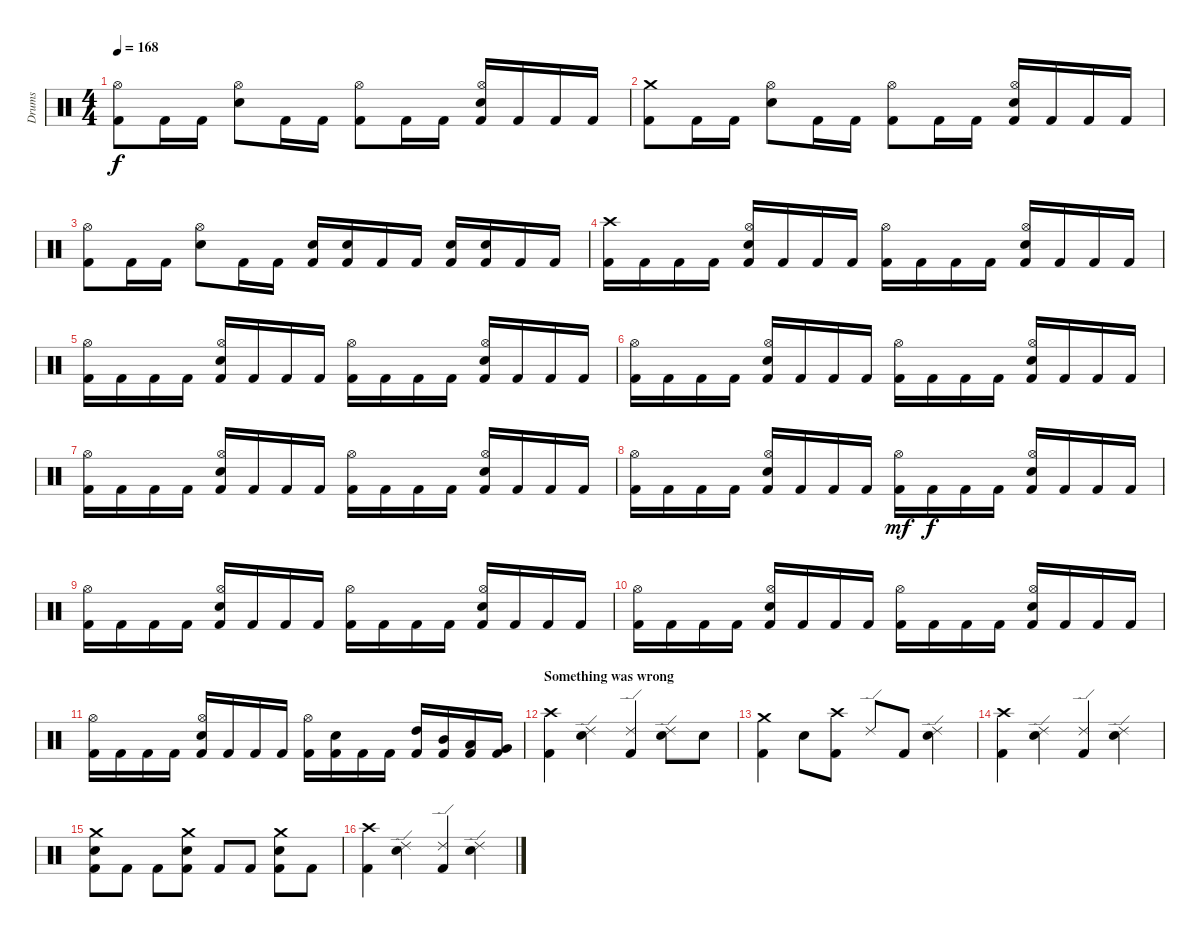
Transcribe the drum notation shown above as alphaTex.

\track ("Drums" "Drums") {instrument percussion}
\staff {score}
\articulation defaults
\ts (4 4)
\tempo 168
\clef neutral
\ks c
("Kick (hit) 2" "Hi-Hat (open)").8{dy f} "Kick (hit) 2".16 "Kick (hit) 2".16 ("Electric Snare (hit)" "Hi-Hat (open)").8 "Kick (hit) 2".16 "Kick (hit) 2".16 ("Kick (hit) 2" "Hi-Hat (open)").8 "Kick (hit) 2".16 "Kick (hit) 2".16 ("Kick (hit) 2" "Electric Snare (hit)" "Hi-Hat (open)").16 "Kick (hit) 2".16 "Kick (hit) 2".16 "Kick (hit) 2".16 |
("Kick (hit) 2" "Crash medium (hit)").8 "Kick (hit) 2".16 "Kick (hit) 2".16 ("Electric Snare (hit)" "Hi-Hat (open)").8 "Kick (hit) 2".16 "Kick (hit) 2".16 ("Kick (hit) 2" "Hi-Hat (open)").8 "Kick (hit) 2".16 "Kick (hit) 2".16 ("Kick (hit) 2" "Electric Snare (hit)" "Hi-Hat (open)").16 "Kick (hit) 2".16 "Kick (hit) 2".16 "Kick (hit) 2".16 |
("Kick (hit) 2" "Hi-Hat (open)").8 "Kick (hit) 2".16 "Kick (hit) 2".16 ("Electric Snare (hit)" "Hi-Hat (open)").8 "Kick (hit) 2".16 "Kick (hit) 2".16 ("Kick (hit) 2" "Electric Snare (hit)").16 ("Kick (hit) 2" "Electric Snare (hit)").16 "Kick (hit) 2".16 "Kick (hit) 2".16 ("Kick (hit) 2" "Electric Snare (hit)").16 ("Kick (hit) 2" "Electric Snare (hit)").16 "Kick (hit) 2".16 "Kick (hit) 2".16 |
\section ("" "")
("Kick (hit) 2" "Crash high (hit)").16 "Kick (hit) 2".16 "Kick (hit) 2".16 "Kick (hit) 2".16 ("Kick (hit) 2" "Electric Snare (hit)" "Hi-Hat (open)").16 "Kick (hit) 2".16 "Kick (hit) 2".16 "Kick (hit) 2".16 ("Kick (hit) 2" "Hi-Hat (open)").16 "Kick (hit) 2".16 "Kick (hit) 2".16 "Kick (hit) 2".16 ("Kick (hit) 2" "Electric Snare (hit)" "Hi-Hat (open)").16 "Kick (hit) 2".16 "Kick (hit) 2".16 "Kick (hit) 2".16 |
("Kick (hit) 2" "Hi-Hat (open)").16 "Kick (hit) 2".16 "Kick (hit) 2".16 "Kick (hit) 2".16 ("Kick (hit) 2" "Electric Snare (hit)" "Hi-Hat (open)").16 "Kick (hit) 2".16 "Kick (hit) 2".16 "Kick (hit) 2".16 ("Kick (hit) 2" "Hi-Hat (open)").16 "Kick (hit) 2".16 "Kick (hit) 2".16 "Kick (hit) 2".16 ("Kick (hit) 2" "Electric Snare (hit)" "Hi-Hat (open)").16 "Kick (hit) 2".16 "Kick (hit) 2".16 "Kick (hit) 2".16 |
("Kick (hit) 2" "Hi-Hat (open)").16 "Kick (hit) 2".16 "Kick (hit) 2".16 "Kick (hit) 2".16 ("Kick (hit) 2" "Electric Snare (hit)" "Hi-Hat (open)").16 "Kick (hit) 2".16 "Kick (hit) 2".16 "Kick (hit) 2".16 ("Kick (hit) 2" "Hi-Hat (open)").16 "Kick (hit) 2".16 "Kick (hit) 2".16 "Kick (hit) 2".16 ("Kick (hit) 2" "Electric Snare (hit)" "Hi-Hat (open)").16 "Kick (hit) 2".16 "Kick (hit) 2".16 "Kick (hit) 2".16 |
("Kick (hit) 2" "Hi-Hat (open)").16 "Kick (hit) 2".16 "Kick (hit) 2".16 "Kick (hit) 2".16 ("Kick (hit) 2" "Electric Snare (hit)" "Hi-Hat (open)").16 "Kick (hit) 2".16 "Kick (hit) 2".16 "Kick (hit) 2".16 ("Kick (hit) 2" "Hi-Hat (open)").16 "Kick (hit) 2".16 "Kick (hit) 2".16 "Kick (hit) 2".16 ("Kick (hit) 2" "Electric Snare (hit)" "Hi-Hat (open)").16 "Kick (hit) 2".16 "Kick (hit) 2".16 "Kick (hit) 2".16 |
("Kick (hit) 2" "Hi-Hat (open)").16 "Kick (hit) 2".16 "Kick (hit) 2".16 "Kick (hit) 2".16 ("Kick (hit) 2" "Electric Snare (hit)" "Hi-Hat (open)").16 "Kick (hit) 2".16 "Kick (hit) 2".16 "Kick (hit) 2".16 ("Kick (hit) 2" "Hi-Hat (open)").16{dy mf} "Kick (hit) 2".16{dy f} "Kick (hit) 2".16 "Kick (hit) 2".16 ("Kick (hit) 2" "Electric Snare (hit)" "Hi-Hat (open)").16 "Kick (hit) 2".16 "Kick (hit) 2".16 "Kick (hit) 2".16 |
("Kick (hit) 2" "Hi-Hat (open)").16 "Kick (hit) 2".16 "Kick (hit) 2".16 "Kick (hit) 2".16 ("Kick (hit) 2" "Electric Snare (hit)" "Hi-Hat (open)").16 "Kick (hit) 2".16 "Kick (hit) 2".16 "Kick (hit) 2".16 ("Kick (hit) 2" "Hi-Hat (open)").16 "Kick (hit) 2".16 "Kick (hit) 2".16 "Kick (hit) 2".16 ("Kick (hit) 2" "Electric Snare (hit)" "Hi-Hat (open)").16 "Kick (hit) 2".16 "Kick (hit) 2".16 "Kick (hit) 2".16 |
("Kick (hit) 2" "Hi-Hat (open)").16 "Kick (hit) 2".16 "Kick (hit) 2".16 "Kick (hit) 2".16 ("Kick (hit) 2" "Electric Snare (hit)" "Hi-Hat (open)").16 "Kick (hit) 2".16 "Kick (hit) 2".16 "Kick (hit) 2".16 ("Kick (hit) 2" "Hi-Hat (open)").16 "Kick (hit) 2".16 "Kick (hit) 2".16 "Kick (hit) 2".16 ("Kick (hit) 2" "Electric Snare (hit)" "Hi-Hat (open)").16 "Kick (hit) 2".16 "Kick (hit) 2".16 "Kick (hit) 2".16 |
("Kick (hit) 2" "Hi-Hat (open)").16 "Kick (hit) 2".16 "Kick (hit) 2".16 "Kick (hit) 2".16 ("Kick (hit) 2" "Electric Snare (hit)" "Hi-Hat (open)").16 "Kick (hit) 2".16 "Kick (hit) 2".16 "Kick (hit) 2".16 ("Kick (hit) 2" "Hi-Hat (open)").16 ("Kick (hit) 2" "Electric Snare (hit)").16 "Kick (hit) 2".16 "Kick (hit) 2".16 ("Kick (hit) 2" "High Tom (hit)").16 ("Kick (hit) 2" "Mid Tom (hit)").16 ("Kick (hit) 2" "Low Tom (hit)").16 ("Kick (hit) 2" "Very Low Tom (hit)").16 |
\section ("" "Something was wrong")
("Kick (hit) 2" "Crash high (hit)").4 ("Electric Snare (hit)" "Ride (edge) 2").4 ("Kick (hit) 2" "Ride (edge) 2").4 ("Electric Snare (hit)" "Ride (edge) 2").8 "Electric Snare (hit)".8 |
("Kick (hit) 2" "Crash medium (hit)").4 "Electric Snare (hit)".8 ("Kick (hit) 2" "Crash high (hit)").8 "Ride (edge) 2".8 "Kick (hit) 2".8 ("Electric Snare (hit)" "Ride (edge) 2").4 |
("Kick (hit) 2" "Crash high (hit)").4 ("Electric Snare (hit)" "Ride (edge) 2").4 ("Kick (hit) 2" "Ride (edge) 2").4 ("Electric Snare (hit)" "Ride (edge) 2").4 |
("Kick (hit) 2" "Electric Snare (hit)" "Crash medium (hit)").8 "Kick (hit) 2".8 "Kick (hit) 2".8 ("Kick (hit) 2" "Electric Snare (hit)" "Crash medium (hit)").8 "Kick (hit) 2".8 "Kick (hit) 2".8 ("Kick (hit) 2" "Electric Snare (hit)" "Crash medium (hit)").8 "Kick (hit) 2".8 |
("Kick (hit) 2" "Crash high (hit)").4 ("Electric Snare (hit)" "Ride (edge) 2").4 ("Kick (hit) 2" "Ride (edge) 2").4 ("Electric Snare (hit)" "Ride (edge) 2").4
